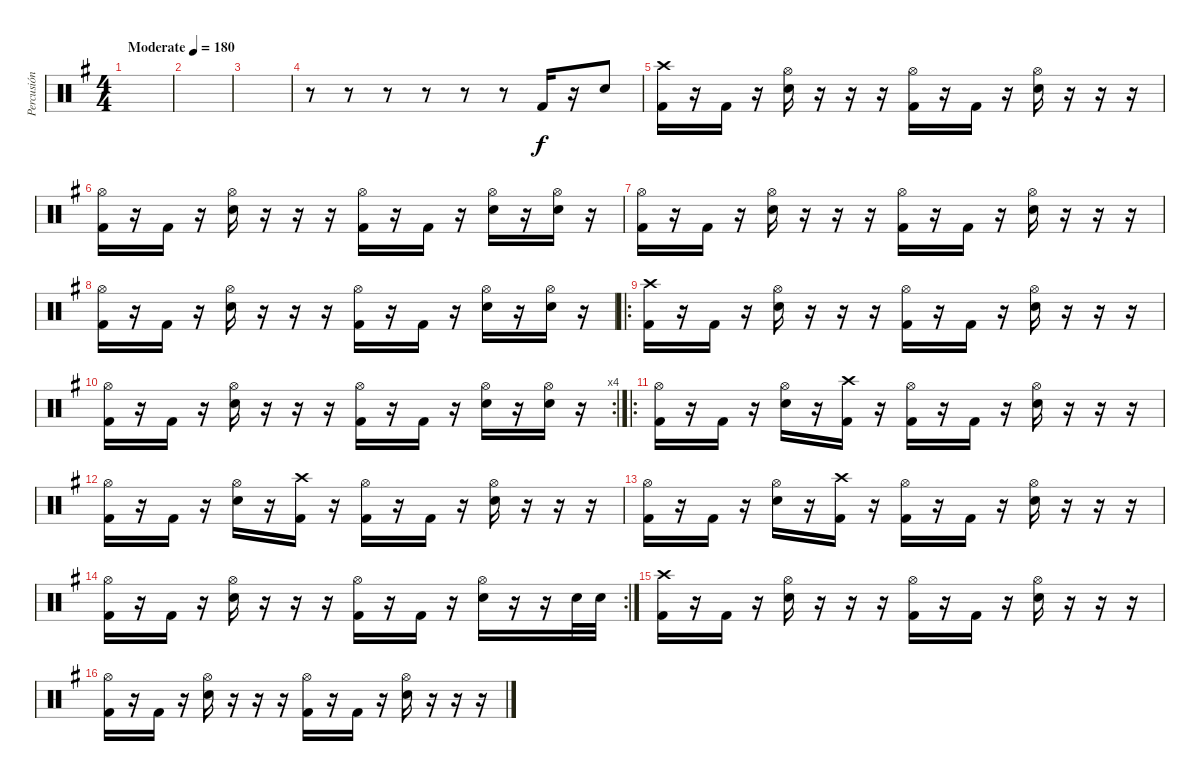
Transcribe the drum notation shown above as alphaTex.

\track ("Percusión" "Percusión") {instrument percussion}
\staff {score}
\articulation defaults
\ts (4 4)
\tempo (180 "Moderate")
\clef neutral
\ks g
|
|
|
r.8 r.8 r.8 r.8 r.8 r.8 "Kick (hit) 2".16 r.16 "Snare (hit) 2".8 |
("Crash high (hit)" "Kick (hit) 2").16 r.16 "Kick (hit) 2".16 r.16 ("Hi-Hat (open)" "Snare (hit) 2").16 r.16 r.16 r.16 ("Hi-Hat (open)" "Kick (hit) 2").16 r.16 "Kick (hit) 2".16 r.16 ("Hi-Hat (open)" "Snare (hit) 2").16 r.16 r.16 r.16 |
("Hi-Hat (open)" "Kick (hit) 2").16 r.16 "Kick (hit) 2".16 r.16 ("Hi-Hat (open)" "Snare (hit) 2").16 r.16 r.16 r.16 ("Hi-Hat (open)" "Kick (hit) 2").16 r.16 "Kick (hit) 2".16 r.16 ("Hi-Hat (open)" "Snare (hit) 2").16 r.16 ("Hi-Hat (open)" "Snare (hit) 2").16 r.16 |
("Hi-Hat (open)" "Kick (hit) 2").16 r.16 "Kick (hit) 2".16 r.16 ("Hi-Hat (open)" "Snare (hit) 2").16 r.16 r.16 r.16 ("Hi-Hat (open)" "Kick (hit) 2").16 r.16 "Kick (hit) 2".16 r.16 ("Hi-Hat (open)" "Snare (hit) 2").16 r.16 r.16 r.16 |
("Hi-Hat (open)" "Kick (hit) 2").16 r.16 "Kick (hit) 2".16 r.16 ("Hi-Hat (open)" "Snare (hit) 2").16 r.16 r.16 r.16 ("Hi-Hat (open)" "Kick (hit) 2").16 r.16 "Kick (hit) 2".16 r.16 ("Hi-Hat (open)" "Snare (hit) 2").16 r.16 ("Hi-Hat (open)" "Snare (hit) 2").16 r.16 |
\ro
("Crash high (hit)" "Kick (hit) 2").16 r.16 "Kick (hit) 2".16 r.16 ("Hi-Hat (open)" "Snare (hit) 2").16 r.16 r.16 r.16 ("Hi-Hat (open)" "Kick (hit) 2").16 r.16 "Kick (hit) 2".16 r.16 ("Hi-Hat (open)" "Snare (hit) 2").16 r.16 r.16 r.16 |
\rc 4
("Hi-Hat (open)" "Kick (hit) 2").16 r.16 "Kick (hit) 2".16 r.16 ("Hi-Hat (open)" "Snare (hit) 2").16 r.16 r.16 r.16 ("Hi-Hat (open)" "Kick (hit) 2").16 r.16 "Kick (hit) 2".16 r.16 ("Hi-Hat (open)" "Snare (hit) 2").16 r.16 ("Hi-Hat (open)" "Snare (hit) 2").16 r.16 |
\ro
("Hi-Hat (open)" "Kick (hit) 2").16 r.16 "Kick (hit) 2".16 r.16 ("Hi-Hat (open)" "Snare (hit) 2").16 r.16 ("Crash high (hit)" "Kick (hit) 2").16 r.16 ("Hi-Hat (open)" "Kick (hit) 2").16 r.16 "Kick (hit) 2".16 r.16 ("Hi-Hat (open)" "Snare (hit) 2").16 r.16 r.16 r.16 |
("Hi-Hat (open)" "Kick (hit) 2").16 r.16 "Kick (hit) 2".16 r.16 ("Hi-Hat (open)" "Snare (hit) 2").16 r.16 ("Crash high (hit)" "Kick (hit) 2").16 r.16 ("Hi-Hat (open)" "Kick (hit) 2").16 r.16 "Kick (hit) 2".16 r.16 ("Hi-Hat (open)" "Snare (hit) 2").16 r.16 r.16 r.16 |
("Hi-Hat (open)" "Kick (hit) 2").16 r.16 "Kick (hit) 2".16 r.16 ("Hi-Hat (open)" "Snare (hit) 2").16 r.16 ("Crash high (hit)" "Kick (hit) 2").16 r.16 ("Hi-Hat (open)" "Kick (hit) 2").16 r.16 "Kick (hit) 2".16 r.16 ("Hi-Hat (open)" "Snare (hit) 2").16 r.16 r.16 r.16 |
\rc 2
("Hi-Hat (open)" "Kick (hit) 2").16 r.16 "Kick (hit) 2".16 r.16 ("Hi-Hat (open)" "Snare (hit) 2").16 r.16 r.16 r.16 ("Hi-Hat (open)" "Kick (hit) 2").16 r.16 "Kick (hit) 2".16 r.16 ("Hi-Hat (open)" "Snare (hit) 2").16 r.16 r.16 "Snare (hit) 2".32 "Snare (hit) 2".32 |
("Crash high (hit)" "Kick (hit) 2").16 r.16 "Kick (hit) 2".16 r.16 ("Hi-Hat (open)" "Snare (hit) 2").16 r.16 r.16 r.16 ("Hi-Hat (open)" "Kick (hit) 2").16 r.16 "Kick (hit) 2".16 r.16 ("Hi-Hat (open)" "Snare (hit) 2").16 r.16 r.16 r.16 |
("Hi-Hat (open)" "Kick (hit) 2").16 r.16 "Kick (hit) 2".16 r.16 ("Hi-Hat (open)" "Snare (hit) 2").16 r.16 r.16 r.16 ("Hi-Hat (open)" "Kick (hit) 2").16 r.16 "Kick (hit) 2".16 r.16 ("Hi-Hat (open)" "Snare (hit) 2").16 r.16 r.16 r.16
